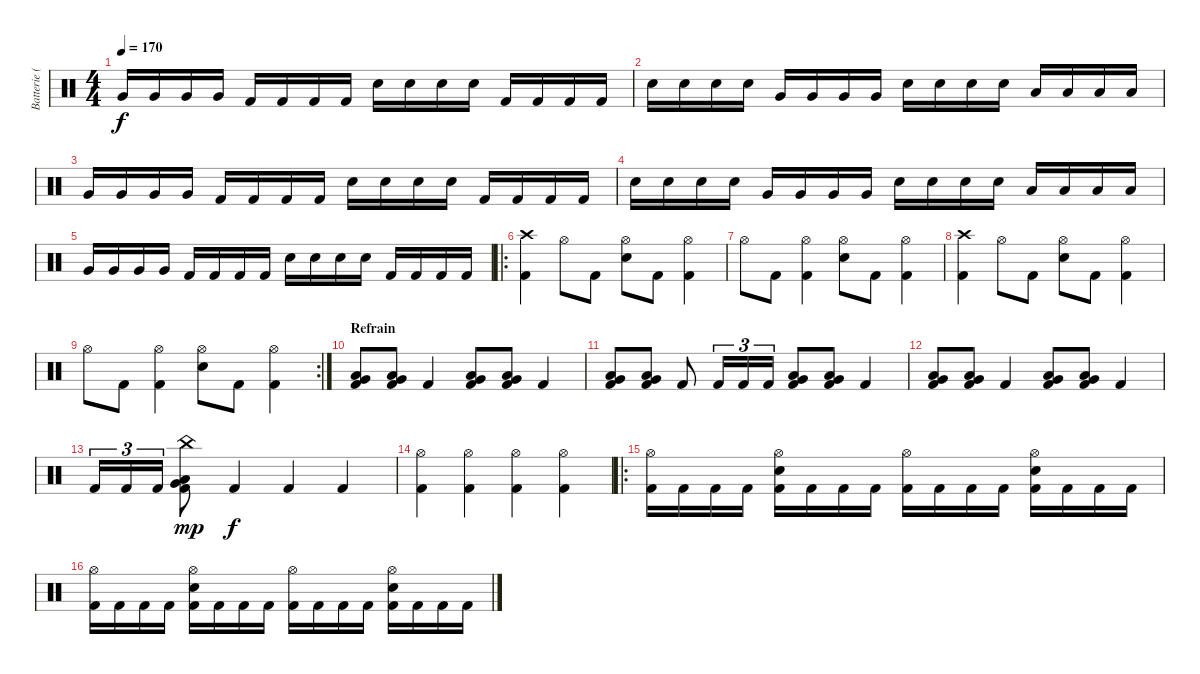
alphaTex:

\track ("Batterie (Racci \"Sketchy\" Shay)" "Batterie (") {instrument percussion}
\staff {score}
\articulation defaults
\ts (4 4)
\tempo 170
\clef neutral
\ks c "Very Low Tom (hit)".16{dy f} "Very Low Tom (hit)".16 "Very Low Tom (hit)".16 "Very Low Tom (hit)".16 "Kick (hit) 2".16 "Kick (hit) 2".16 "Kick (hit) 2".16 "Kick (hit) 2".16 "Electric Snare (hit)".16 "Electric Snare (hit)".16 "Electric Snare (hit)".16 "Electric Snare (hit)".16 "Kick (hit) 2".16 "Kick (hit) 2".16 "Kick (hit) 2".16 "Kick (hit) 2".16
|
"Electric Snare (hit)".16 "Electric Snare (hit)".16 "Electric Snare (hit)".16 "Electric Snare (hit)".16 "Very Low Tom (hit)".16 "Very Low Tom (hit)".16 "Very Low Tom (hit)".16 "Very Low Tom (hit)".16 "Electric Snare (hit)".16 "Electric Snare (hit)".16 "Electric Snare (hit)".16 "Electric Snare (hit)".16 "Low Floor Tom (hit)".16 "Low Floor Tom (hit)".16 "Low Floor Tom (hit)".16 "Low Floor Tom (hit)".16 |
"Very Low Tom (hit)".16 "Very Low Tom (hit)".16 "Very Low Tom (hit)".16 "Very Low Tom (hit)".16 "Kick (hit) 2".16 "Kick (hit) 2".16 "Kick (hit) 2".16 "Kick (hit) 2".16 "Electric Snare (hit)".16 "Electric Snare (hit)".16 "Electric Snare (hit)".16 "Electric Snare (hit)".16 "Kick (hit) 2".16 "Kick (hit) 2".16 "Kick (hit) 2".16 "Kick (hit) 2".16 |
"Electric Snare (hit)".16 "Electric Snare (hit)".16 "Electric Snare (hit)".16 "Electric Snare (hit)".16 "Very Low Tom (hit)".16 "Very Low Tom (hit)".16 "Very Low Tom (hit)".16 "Very Low Tom (hit)".16 "Electric Snare (hit)".16 "Electric Snare (hit)".16 "Electric Snare (hit)".16 "Electric Snare (hit)".16 "Low Floor Tom (hit)".16 "Low Floor Tom (hit)".16 "Low Floor Tom (hit)".16 "Low Floor Tom (hit)".16 |
"Very Low Tom (hit)".16 "Very Low Tom (hit)".16 "Very Low Tom (hit)".16 "Very Low Tom (hit)".16 "Kick (hit) 2".16 "Kick (hit) 2".16 "Kick (hit) 2".16 "Kick (hit) 2".16 "Electric Snare (hit)".16 "Electric Snare (hit)".16 "Electric Snare (hit)".16 "Electric Snare (hit)".16 "Kick (hit) 2".16 "Kick (hit) 2".16 "Kick (hit) 2".16 "Kick (hit) 2".16 |
\ro
("Crash high (hit)" "Kick (hit) 2").4 "Hi-Hat (open)".8 "Kick (hit) 2".8 ("Hi-Hat (open)" "Electric Snare (hit)").8 "Kick (hit) 2".8 ("Hi-Hat (open)" "Kick (hit) 2").4 |
"Hi-Hat (open)".8 "Kick (hit) 2".8 ("Hi-Hat (open)" "Kick (hit) 2").4 ("Hi-Hat (open)" "Electric Snare (hit)").8 "Kick (hit) 2".8 ("Hi-Hat (open)" "Kick (hit) 2").4 |
("Crash high (hit)" "Kick (hit) 2").4 "Hi-Hat (open)".8 "Kick (hit) 2".8 ("Hi-Hat (open)" "Electric Snare (hit)").8 "Kick (hit) 2".8 ("Hi-Hat (open)" "Kick (hit) 2").4 |
\rc 2 "Hi-Hat (open)".8 "Kick (hit) 2".8
("Hi-Hat (open)" "Kick (hit) 2").4 ("Hi-Hat (open)" "Electric Snare (hit)").8 "Kick (hit) 2".8 ("Hi-Hat (open)" "Kick (hit) 2").4 |
\section ("" "Refrain")
("Very Low Tom (hit)" "Low Floor Tom (hit)" "Kick (hit) 2").8 ("Very Low Tom (hit)" "Low Floor Tom (hit)" "Kick (hit) 2").8 "Kick (hit) 2".4 ("Very Low Tom (hit)" "Low Floor Tom (hit)" "Kick (hit) 2").8 ("Very Low Tom (hit)" "Low Floor Tom (hit)" "Kick (hit) 2").8 "Kick (hit) 2".4 |
("Very Low Tom (hit)" "Low Floor Tom (hit)" "Kick (hit) 2").8 ("Very Low Tom (hit)" "Low Floor Tom (hit)" "Kick (hit) 2").8 "Kick (hit) 2".8 "Kick (hit) 2".16{tu (3 2)} "Kick (hit) 2".16{tu (3 2)} "Kick (hit) 2".16{tu (3 2)} ("Very Low Tom (hit)" "Low Floor Tom (hit)" "Kick (hit) 2").8 ("Very Low Tom (hit)" "Low Floor Tom (hit)" "Kick (hit) 2").8 "Kick (hit) 2".4 |
("Very Low Tom (hit)" "Low Floor Tom (hit)" "Kick (hit) 2").8 ("Very Low Tom (hit)" "Low Floor Tom (hit)" "Kick (hit) 2").8 "Kick (hit) 2".4 ("Very Low Tom (hit)" "Low Floor Tom (hit)" "Kick (hit) 2").8 ("Very Low Tom (hit)" "Low Floor Tom (hit)" "Kick (hit) 2").8 "Kick (hit) 2".4 |
"Kick (hit) 2".16{tu (3 2)} "Kick (hit) 2".16{tu (3 2)} "Kick (hit) 2".16{tu (3 2)} ("China (hit)" "Very Low Tom (hit)" "Low Floor Tom (hit)" "Kick (hit) 2").8{dy mp} "Kick (hit) 2".4{dy f} "Kick (hit) 2".4 "Kick (hit) 2".4 |
("Hi-Hat (open)" "Kick (hit) 2").4 ("Hi-Hat (open)" "Kick (hit) 2").4 ("Hi-Hat (open)" "Kick (hit) 2").4 ("Hi-Hat (open)" "Kick (hit) 2").4 |
\ro
("Hi-Hat (open)" "Kick (hit) 2").16 "Kick (hit) 2".16 "Kick (hit) 2".16 "Kick (hit) 2".16 ("Hi-Hat (open)" "Electric Snare (hit)" "Kick (hit) 2").16 "Kick (hit) 2".16 "Kick (hit) 2".16 "Kick (hit) 2".16 ("Hi-Hat (open)" "Kick (hit) 2").16 "Kick (hit) 2".16 "Kick (hit) 2".16 "Kick (hit) 2".16 ("Hi-Hat (open)" "Electric Snare (hit)" "Kick (hit) 2").16 "Kick (hit) 2".16 "Kick (hit) 2".16 "Kick (hit) 2".16 |
("Hi-Hat (open)" "Kick (hit) 2").16 "Kick (hit) 2".16 "Kick (hit) 2".16 "Kick (hit) 2".16 ("Hi-Hat (open)" "Electric Snare (hit)" "Kick (hit) 2").16 "Kick (hit) 2".16 "Kick (hit) 2".16 "Kick (hit) 2".16 ("Hi-Hat (open)" "Kick (hit) 2").16 "Kick (hit) 2".16 "Kick (hit) 2".16 "Kick (hit) 2".16 ("Hi-Hat (open)" "Electric Snare (hit)" "Kick (hit) 2").16 "Kick (hit) 2".16 "Kick (hit) 2".16 "Kick (hit) 2".16
